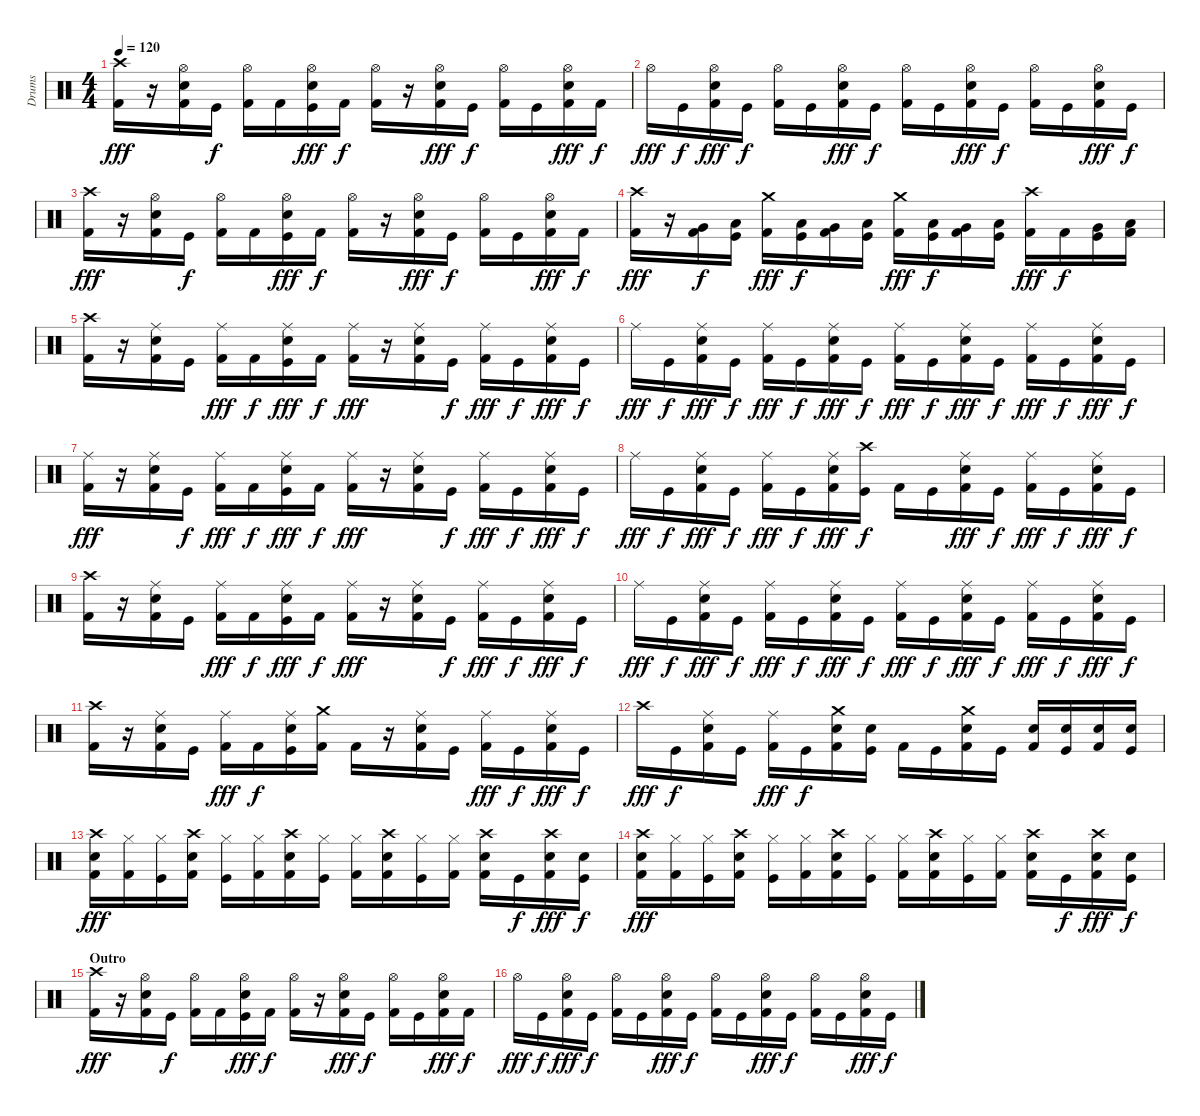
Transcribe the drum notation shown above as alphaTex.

\track ("Drums" "Drums") {instrument percussion}
\staff {score}
\articulation defaults
\ts (4 4)
\tempo 120
\clef neutral
\ks c
("Crash high (hit)" "Kick (hit) 2").16{dy fff} r.16 ("Hi-Hat (open)" "Snare (hit) 2" "Kick (hit) 2").16 "Kick (hit)".16{dy f} ("Hi-Hat (open)" "Kick (hit) 2").16 "Kick (hit) 2".16 ("Hi-Hat (open)" "Snare (hit) 2" "Kick (hit)").16{dy fff} "Kick (hit) 2".16{dy f} ("Hi-Hat (open)" "Kick (hit) 2").16 r.16 ("Hi-Hat (open)" "Snare (hit) 2" "Kick (hit) 2").16{dy fff} "Kick (hit)".16{dy f} ("Hi-Hat (open)" "Kick (hit) 2").16 "Kick (hit)".16 ("Hi-Hat (open)" "Snare (hit) 2" "Kick (hit) 2").16{dy fff} "Kick (hit) 2".16{dy f} |
"Hi-Hat (open)".16{dy fff} "Kick (hit)".16{dy f} ("Hi-Hat (open)" "Snare (hit) 2" "Kick (hit) 2").16{dy fff} "Kick (hit)".16{dy f} ("Hi-Hat (open)" "Kick (hit) 2").16 "Kick (hit)".16 ("Hi-Hat (open)" "Snare (hit) 2" "Kick (hit) 2").16{dy fff} "Kick (hit)".16{dy f} ("Hi-Hat (open)" "Kick (hit) 2").16 "Kick (hit)".16 ("Hi-Hat (open)" "Snare (hit) 2" "Kick (hit) 2").16{dy fff} "Kick (hit)".16{dy f} ("Hi-Hat (open)" "Kick (hit) 2").16 "Kick (hit)".16 ("Hi-Hat (open)" "Snare (hit) 2" "Kick (hit) 2").16{dy fff} "Kick (hit)".16{dy f} |
("Crash high (hit)" "Kick (hit) 2").16{dy fff} r.16 ("Hi-Hat (open)" "Snare (hit) 2" "Kick (hit) 2").16 "Kick (hit)".16{dy f} ("Hi-Hat (open)" "Kick (hit) 2").16 "Kick (hit) 2".16 ("Hi-Hat (open)" "Snare (hit) 2" "Kick (hit)").16{dy fff} "Kick (hit) 2".16{dy f} ("Hi-Hat (open)" "Kick (hit) 2").16 r.16 ("Hi-Hat (open)" "Snare (hit) 2" "Kick (hit) 2").16{dy fff} "Kick (hit)".16{dy f} ("Hi-Hat (open)" "Kick (hit) 2").16 "Kick (hit)".16 ("Hi-Hat (open)" "Snare (hit) 2" "Kick (hit) 2").16{dy fff} "Kick (hit) 2".16{dy f} |
("Crash high (hit)" "Kick (hit) 2").16{dy fff} r.16 ("Very Low Tom (hit)" "Kick (hit) 2").16{dy f} ("Low Floor Tom (hit)" "Kick (hit)").16 ("Crash medium (hit)" "Kick (hit) 2").16{dy fff} ("Low Tom (hit)" "Kick (hit)").16{dy f} ("Very Low Tom (hit)" "Kick (hit) 2").16 ("Low Floor Tom (hit)" "Kick (hit)").16 ("Crash medium (hit)" "Kick (hit) 2").16{dy fff} ("Low Tom (hit)" "Kick (hit)").16{dy f} ("Very Low Tom (hit)" "Kick (hit) 2").16 ("Low Floor Tom (hit)" "Kick (hit)").16 ("Crash high (hit)" "Kick (hit) 2").16{dy fff} "Kick (hit) 2".16{dy f} ("Very Low Tom (hit)" "Kick (hit)").16 ("Low Floor Tom (hit)" "Kick (hit) 2").16 |
("Crash high (hit)" "Kick (hit) 2").16 r.16 ("Ride (middle)" "Snare (hit) 2" "Kick (hit) 2").16 "Kick (hit)".16 ("Ride (middle)" "Kick (hit) 2").16{dy fff} "Kick (hit) 2".16{dy f} ("Ride (middle)" "Snare (hit) 2" "Kick (hit)").16{dy fff} "Kick (hit) 2".16{dy f} ("Ride (middle)" "Kick (hit) 2").16{dy fff} r.16 ("Ride (middle)" "Snare (hit) 2" "Kick (hit) 2").16 "Kick (hit)".16{dy f} ("Ride (middle)" "Kick (hit) 2").16{dy fff} "Kick (hit)".16{dy f} ("Ride (middle)" "Snare (hit) 2" "Kick (hit) 2").16{dy fff} "Kick (hit)".16{dy f} |
"Ride (middle)".16{dy fff} "Kick (hit)".16{dy f} ("Ride (middle)" "Snare (hit) 2" "Kick (hit) 2").16{dy fff} "Kick (hit)".16{dy f} ("Ride (middle)" "Kick (hit) 2").16{dy fff} "Kick (hit)".16{dy f} ("Ride (middle)" "Snare (hit) 2" "Kick (hit) 2").16{dy fff} "Kick (hit)".16{dy f} ("Ride (middle)" "Kick (hit) 2").16{dy fff} "Kick (hit)".16{dy f} ("Ride (middle)" "Snare (hit) 2" "Kick (hit) 2").16{dy fff} "Kick (hit)".16{dy f} ("Ride (middle)" "Kick (hit) 2").16{dy fff} "Kick (hit)".16{dy f} ("Ride (middle)" "Snare (hit) 2" "Kick (hit) 2").16{dy fff} "Kick (hit)".16{dy f} |
("Ride (middle)" "Kick (hit) 2").16{dy fff} r.16 ("Ride (middle)" "Snare (hit) 2" "Kick (hit) 2").16 "Kick (hit)".16{dy f} ("Ride (middle)" "Kick (hit) 2").16{dy fff} "Kick (hit) 2".16{dy f} ("Ride (middle)" "Snare (hit) 2" "Kick (hit)").16{dy fff} "Kick (hit) 2".16{dy f} ("Ride (middle)" "Kick (hit) 2").16{dy fff} r.16 ("Ride (middle)" "Snare (hit) 2" "Kick (hit) 2").16 "Kick (hit)".16{dy f} ("Ride (middle)" "Kick (hit) 2").16{dy fff} "Kick (hit)".16{dy f} ("Ride (middle)" "Snare (hit) 2" "Kick (hit) 2").16{dy fff} "Kick (hit)".16{dy f} |
"Ride (middle)".16{dy fff} "Kick (hit)".16{dy f} ("Ride (middle)" "Snare (hit) 2" "Kick (hit) 2").16{dy fff} "Kick (hit)".16{dy f} ("Ride (middle)" "Kick (hit) 2").16{dy fff} "Kick (hit)".16{dy f} ("Ride (middle)" "Snare (hit) 2" "Kick (hit) 2").16{dy fff} ("Crash high (hit)" "Kick (hit)").16{dy f} "Kick (hit) 2".16 "Kick (hit)".16 ("Ride (middle)" "Snare (hit) 2" "Kick (hit) 2").16{dy fff} "Kick (hit)".16{dy f} ("Ride (middle)" "Kick (hit) 2").16{dy fff} "Kick (hit)".16{dy f} ("Ride (middle)" "Snare (hit) 2" "Kick (hit) 2").16{dy fff} "Kick (hit)".16{dy f} |
("Crash high (hit)" "Kick (hit) 2").16 r.16 ("Ride (middle)" "Snare (hit) 2" "Kick (hit) 2").16 "Kick (hit)".16 ("Ride (middle)" "Kick (hit) 2").16{dy fff} "Kick (hit) 2".16{dy f} ("Ride (middle)" "Snare (hit) 2" "Kick (hit)").16{dy fff} "Kick (hit) 2".16{dy f} ("Ride (middle)" "Kick (hit) 2").16{dy fff} r.16 ("Ride (middle)" "Snare (hit) 2" "Kick (hit) 2").16 "Kick (hit)".16{dy f} ("Ride (middle)" "Kick (hit) 2").16{dy fff} "Kick (hit)".16{dy f} ("Ride (middle)" "Snare (hit) 2" "Kick (hit) 2").16{dy fff} "Kick (hit)".16{dy f} |
"Ride (middle)".16{dy fff} "Kick (hit)".16{dy f} ("Ride (middle)" "Snare (hit) 2" "Kick (hit) 2").16{dy fff} "Kick (hit)".16{dy f} ("Ride (middle)" "Kick (hit) 2").16{dy fff} "Kick (hit)".16{dy f} ("Ride (middle)" "Snare (hit) 2" "Kick (hit) 2").16{dy fff} "Kick (hit)".16{dy f} ("Ride (middle)" "Kick (hit) 2").16{dy fff} "Kick (hit)".16{dy f} ("Ride (middle)" "Snare (hit) 2" "Kick (hit) 2").16{dy fff} "Kick (hit)".16{dy f} ("Ride (middle)" "Kick (hit) 2").16{dy fff} "Kick (hit)".16{dy f} ("Ride (middle)" "Snare (hit) 2" "Kick (hit) 2").16{dy fff} "Kick (hit)".16{dy f} |
("Crash high (hit)" "Kick (hit) 2").16 r.16 ("Ride (middle)" "Snare (hit) 2" "Kick (hit) 2").16 "Kick (hit)".16 ("Ride (middle)" "Kick (hit) 2").16{dy fff} "Kick (hit) 2".16{dy f} ("Ride (middle)" "Snare (hit) 2" "Kick (hit)").16 ("Crash medium (hit)" "Kick (hit) 2").16 "Kick (hit) 2".16 r.16 ("Ride (middle)" "Snare (hit) 2" "Kick (hit) 2").16 "Kick (hit)".16 ("Ride (middle)" "Kick (hit) 2").16{dy fff} "Kick (hit)".16{dy f} ("Ride (middle)" "Snare (hit) 2" "Kick (hit) 2").16{dy fff} "Kick (hit)".16{dy f} |
"Crash high (hit)".16{dy fff} "Kick (hit)".16{dy f} ("Ride (middle)" "Snare (hit) 2" "Kick (hit) 2").16 "Kick (hit)".16 ("Ride (middle)" "Kick (hit) 2").16{dy fff} "Kick (hit)".16{dy f} ("Crash medium (hit)" "Snare (hit) 2" "Kick (hit) 2").16 ("Snare (hit) 2" "Kick (hit)").16 "Kick (hit) 2".16 "Kick (hit)".16 ("Crash medium (hit)" "Snare (hit) 2" "Kick (hit) 2").16 "Kick (hit)".16 ("Snare (hit) 2" "Kick (hit) 2").16 ("Snare (hit) 2" "Kick (hit)").16 ("Snare (hit) 2" "Kick (hit) 2").16 ("Snare (hit) 2" "Kick (hit)").16 |
("Crash high (hit)" "Snare (hit) 2" "Kick (hit) 2").16{dy fff} ("Hi-Hat (closed)" "Kick (hit) 2").16 ("Hi-Hat (closed)" "Kick (hit)").16 ("Crash high (hit)" "Snare (hit) 2" "Kick (hit) 2").16 ("Hi-Hat (closed)" "Kick (hit)").16 ("Hi-Hat (closed)" "Kick (hit) 2").16 ("Crash high (hit)" "Snare (hit) 2" "Kick (hit) 2").16 ("Hi-Hat (closed)" "Kick (hit)").16 ("Hi-Hat (closed)" "Kick (hit) 2").16 ("Crash high (hit)" "Snare (hit) 2" "Kick (hit) 2").16 ("Hi-Hat (closed)" "Kick (hit)").16 ("Hi-Hat (closed)" "Kick (hit) 2").16 ("Crash high (hit)" "Snare (hit) 2" "Kick (hit) 2").16 "Kick (hit)".16{dy f} ("Crash high (hit)" "Snare (hit) 2" "Kick (hit) 2").16{dy fff} ("Snare (hit) 2" "Kick (hit)").16{dy f} |
("Crash high (hit)" "Snare (hit) 2" "Kick (hit) 2").16{dy fff} ("Hi-Hat (closed)" "Kick (hit) 2").16 ("Hi-Hat (closed)" "Kick (hit)").16 ("Crash high (hit)" "Snare (hit) 2" "Kick (hit) 2").16 ("Hi-Hat (closed)" "Kick (hit)").16 ("Hi-Hat (closed)" "Kick (hit) 2").16 ("Crash high (hit)" "Snare (hit) 2" "Kick (hit) 2").16 ("Hi-Hat (closed)" "Kick (hit)").16 ("Hi-Hat (closed)" "Kick (hit) 2").16 ("Crash high (hit)" "Snare (hit) 2" "Kick (hit) 2").16 ("Hi-Hat (closed)" "Kick (hit)").16 ("Hi-Hat (closed)" "Kick (hit) 2").16 ("Crash high (hit)" "Snare (hit) 2" "Kick (hit) 2").16 "Kick (hit)".16{dy f} ("Crash high (hit)" "Snare (hit) 2" "Kick (hit) 2").16{dy fff} ("Snare (hit) 2" "Kick (hit)").16{dy f} |
\section ("" "Outro")
("Crash high (hit)" "Kick (hit) 2").16{dy fff} r.16 ("Hi-Hat (open)" "Snare (hit) 2" "Kick (hit) 2").16 "Kick (hit)".16{dy f} ("Hi-Hat (open)" "Kick (hit) 2").16 "Kick (hit) 2".16 ("Hi-Hat (open)" "Snare (hit) 2" "Kick (hit)").16{dy fff} "Kick (hit) 2".16{dy f} ("Hi-Hat (open)" "Kick (hit) 2").16 r.16 ("Hi-Hat (open)" "Snare (hit) 2" "Kick (hit) 2").16{dy fff} "Kick (hit)".16{dy f} ("Hi-Hat (open)" "Kick (hit) 2").16 "Kick (hit)".16 ("Hi-Hat (open)" "Snare (hit) 2" "Kick (hit) 2").16{dy fff} "Kick (hit) 2".16{dy f} |
"Hi-Hat (open)".16{dy fff} "Kick (hit)".16{dy f} ("Hi-Hat (open)" "Snare (hit) 2" "Kick (hit) 2").16{dy fff} "Kick (hit)".16{dy f} ("Hi-Hat (open)" "Kick (hit) 2").16 "Kick (hit)".16 ("Hi-Hat (open)" "Snare (hit) 2" "Kick (hit) 2").16{dy fff} "Kick (hit)".16{dy f} ("Hi-Hat (open)" "Kick (hit) 2").16 "Kick (hit)".16 ("Hi-Hat (open)" "Snare (hit) 2" "Kick (hit) 2").16{dy fff} "Kick (hit)".16{dy f} ("Hi-Hat (open)" "Kick (hit) 2").16 "Kick (hit)".16 ("Hi-Hat (open)" "Snare (hit) 2" "Kick (hit) 2").16{dy fff} "Kick (hit)".16{dy f}
